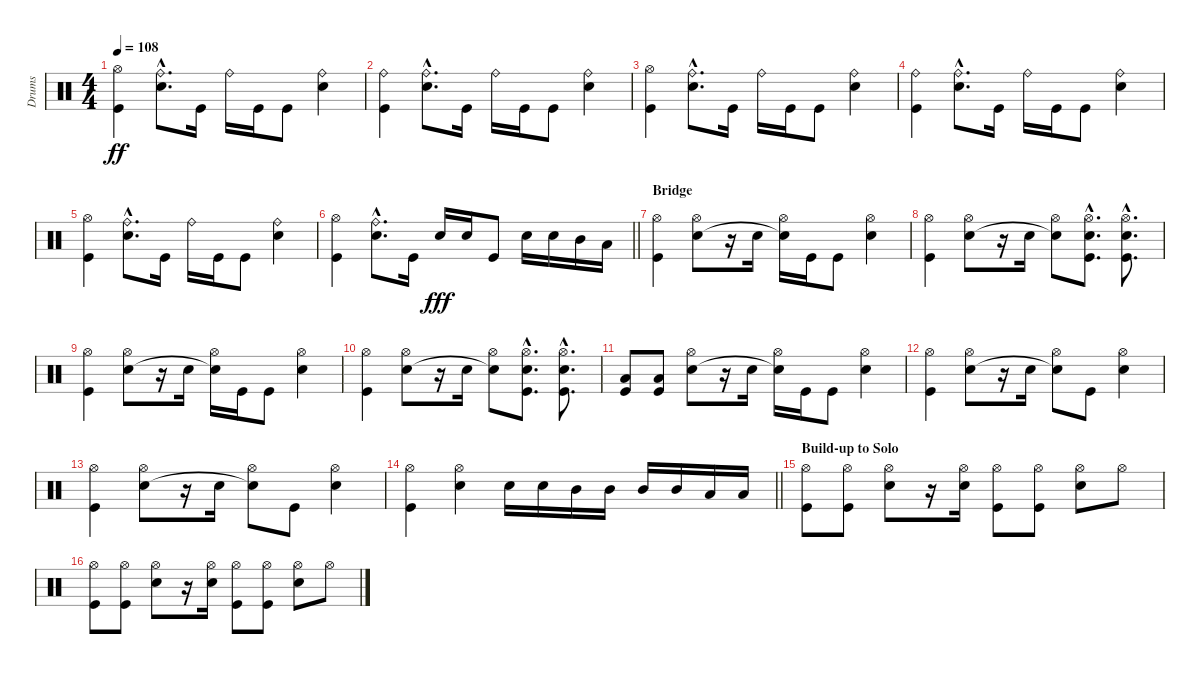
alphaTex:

\track ("Drums" "Drums") {instrument percussion}
\staff {score}
\articulation defaults
\ts (4 4)
\tempo 108
\clef neutral
\ks c
("Hi-Hat (open)" "Kick (hit)").4{dy ff} ("Ride (bell)"{hac} "Electric Snare (hit)"{hac}).8{d} "Kick (hit)".16 "Ride (bell)".16 "Kick (hit)".16 "Kick (hit)".8 ("Ride (bell)" "Electric Snare (hit)").4 |
("Ride (bell)" "Kick (hit)").4 ("Ride (bell)"{hac} "Electric Snare (hit)"{hac}).8{d} "Kick (hit)".16 "Ride (bell)".16 "Kick (hit)".16 "Kick (hit)".8 ("Ride (bell)" "Electric Snare (hit)").4 |
("Hi-Hat (open)" "Kick (hit)").4 ("Ride (bell)"{hac} "Electric Snare (hit)"{hac}).8{d} "Kick (hit)".16 "Ride (bell)".16 "Kick (hit)".16 "Kick (hit)".8 ("Ride (bell)" "Electric Snare (hit)").4 |
("Ride (bell)" "Kick (hit)").4 ("Ride (bell)"{hac} "Electric Snare (hit)"{hac}).8{d} "Kick (hit)".16 "Ride (bell)".16 "Kick (hit)".16 "Kick (hit)".8 ("Ride (bell)" "Electric Snare (hit)").4 |
("Hi-Hat (open)" "Kick (hit)").4 ("Ride (bell)"{hac} "Electric Snare (hit)"{hac}).8{d} "Kick (hit)".16 "Ride (bell)".16 "Kick (hit)".16 "Kick (hit)".8 ("Ride (bell)" "Electric Snare (hit)").4 |
\barLineRight lightlight
("Hi-Hat (open)" "Kick (hit)").4 ("Ride (bell)"{hac} "Electric Snare (hit)"{hac}).8{d} "Kick (hit)".16 "Electric Snare (hit)".16{dy fff} "Electric Snare (hit)".16 "Kick (hit)".8 "Electric Snare (hit)".16 "Electric Snare (hit)".16 "Mid Tom (hit)".16 "Low Tom (hit)".16 |
\section ("" "Bridge")
("Hi-Hat (open)" "Kick (hit)").4 ("Hi-Hat (open)" "Electric Snare (hit)").8 r.16 "Electric Snare (hit)".16 ("Hi-Hat (open)" "Electric Snare (hit)"{t}).16 "Kick (hit)".16 "Kick (hit)".8 ("Hi-Hat (open)" "Electric Snare (hit)").4 |
("Hi-Hat (open)" "Kick (hit)").4 ("Hi-Hat (open)" "Electric Snare (hit)").8 r.16 "Electric Snare (hit)".16 ("Hi-Hat (open)" "Electric Snare (hit)"{t}).8 ("Electric Snare (hit)"{hac} "Hi-Hat (open)"{hac} "Kick (hit)"{hac}).8{d} ("Electric Snare (hit)"{hac} "Hi-Hat (open)"{hac} "Kick (hit)"{hac}).8{d} |
("Hi-Hat (open)" "Kick (hit)").4 ("Hi-Hat (open)" "Electric Snare (hit)").8 r.16 "Electric Snare (hit)".16 ("Hi-Hat (open)" "Electric Snare (hit)"{t}).16 "Kick (hit)".16 "Kick (hit)".8 ("Hi-Hat (open)" "Electric Snare (hit)").4 |
("Hi-Hat (open)" "Kick (hit)").4 ("Hi-Hat (open)" "Electric Snare (hit)").8 r.16 "Electric Snare (hit)".16 ("Hi-Hat (open)" "Electric Snare (hit)"{t}).8 ("Electric Snare (hit)"{hac} "Hi-Hat (open)"{hac} "Kick (hit)"{hac}).8{d} ("Electric Snare (hit)"{hac} "Hi-Hat (open)"{hac} "Kick (hit)"{hac}).8{d} |
("Kick (hit)" "Low Floor Tom (hit)").8 ("Kick (hit)" "Low Floor Tom (hit)").8 ("Hi-Hat (open)" "Electric Snare (hit)").8 r.16 "Electric Snare (hit)".16 ("Hi-Hat (open)" "Electric Snare (hit)"{t}).16 "Kick (hit)".16 "Kick (hit)".8 ("Hi-Hat (open)" "Electric Snare (hit)").4 |
("Hi-Hat (open)" "Kick (hit)").4 ("Hi-Hat (open)" "Electric Snare (hit)").8 r.16 "Electric Snare (hit)".16 ("Hi-Hat (open)" "Electric Snare (hit)"{t}).8 "Kick (hit)".8 ("Hi-Hat (open)" "Electric Snare (hit)").4 |
("Hi-Hat (open)" "Kick (hit)").4 ("Hi-Hat (open)" "Electric Snare (hit)").8 r.16 "Electric Snare (hit)".16 ("Hi-Hat (open)" "Electric Snare (hit)"{t}).8 "Kick (hit)".8 ("Hi-Hat (open)" "Electric Snare (hit)").4 |
\barLineRight lightlight
("Hi-Hat (open)" "Kick (hit)").4 ("Hi-Hat (open)" "Electric Snare (hit)").4 "Electric Snare (hit)".16 "Electric Snare (hit)".16 "Mid Tom (hit)".16 "Mid Tom (hit)".16 "Mid Tom (hit)".16 "Mid Tom (hit)".16 "Low Tom (hit)".16 "Low Tom (hit)".16 |
\section ("" "Build-up to Solo")
("Hi-Hat (open)" "Kick (hit)").8 ("Hi-Hat (open)" "Kick (hit)").8 ("Hi-Hat (open)" "Electric Snare (hit)").8 r.16 ("Hi-Hat (open)" "Electric Snare (hit)").16 ("Hi-Hat (open)" "Kick (hit)").8 ("Hi-Hat (open)" "Kick (hit)").8 ("Hi-Hat (open)" "Electric Snare (hit)").8 "Hi-Hat (open)".8 |
("Hi-Hat (open)" "Kick (hit)").8 ("Hi-Hat (open)" "Kick (hit)").8 ("Hi-Hat (open)" "Electric Snare (hit)").8 r.16 ("Hi-Hat (open)" "Electric Snare (hit)").16 ("Hi-Hat (open)" "Kick (hit)").8 ("Hi-Hat (open)" "Kick (hit)").8 ("Hi-Hat (open)" "Electric Snare (hit)").8 "Hi-Hat (open)".8
